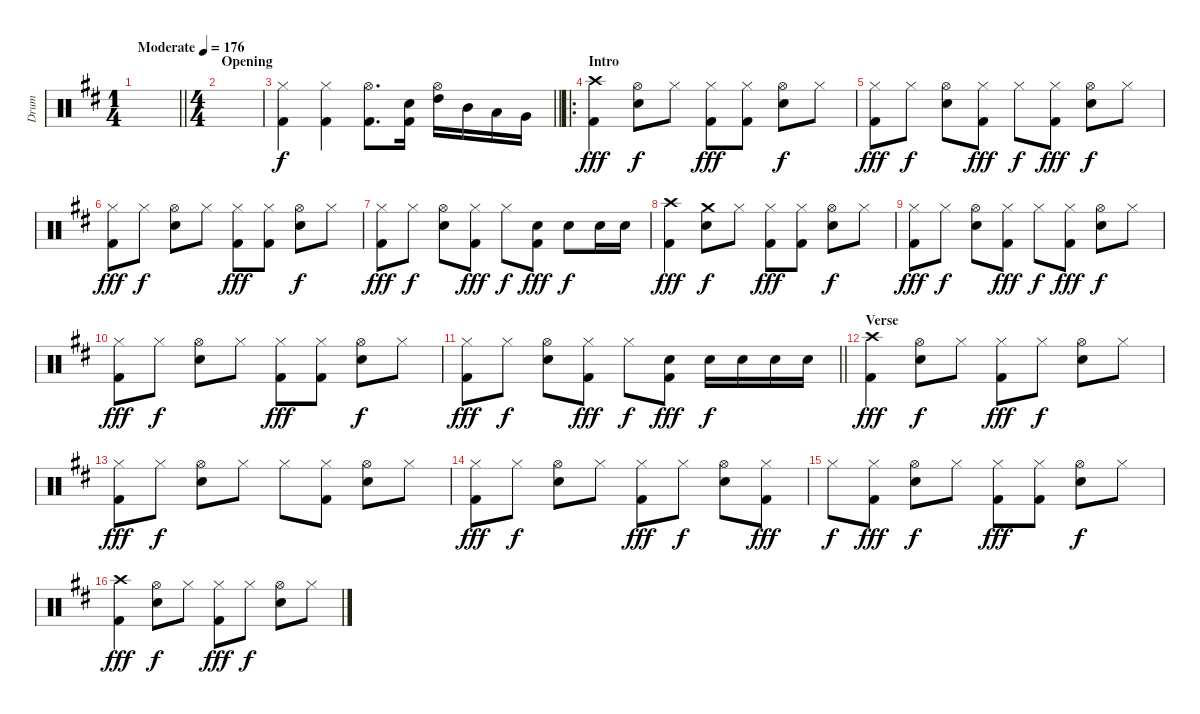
\track ("Drum" "Drum") {instrument percussion}
\staff {score}
\articulation defaults
\ts (1 4)
\tempo (176 "Moderate")
\clef neutral
\barLineRight lightlight
\ks d
|
\ts (4 4)
\section ("" "Opening")
|
\barLineRight lightlight
("Hi-Hat (closed)" "Kick (hit) 2").4 ("Hi-Hat (closed)" "Kick (hit) 2").4 ("Hi-Hat (open)" "Kick (hit) 2").8{d} ("Snare (hit) 2" "Kick (hit) 2").16 ("Hi-Hat (open)" "High Tom (hit)").16{dy f} "Mid Tom (hit)".16 "Low Tom (hit)".16 "Very Low Tom (hit)".16 |
\ro
\section ("" "Intro")
("Crash high (hit)" "Kick (hit) 2").4{dy fff} ("Hi-Hat (open)" "Snare (hit) 2").8{dy f} "Hi-Hat (closed)".8 ("Hi-Hat (closed)" "Kick (hit) 2").8{dy fff} ("Hi-Hat (closed)" "Kick (hit) 2").8 ("Hi-Hat (open)" "Snare (hit) 2").8{dy f} "Hi-Hat (closed)".8 |
("Hi-Hat (closed)" "Kick (hit) 2").8{dy fff} "Hi-Hat (closed)".8{dy f} ("Hi-Hat (open)" "Snare (hit) 2").8 ("Hi-Hat (closed)" "Kick (hit) 2").8{dy fff} "Hi-Hat (closed)".8{dy f} ("Hi-Hat (closed)" "Kick (hit) 2").8{dy fff} ("Hi-Hat (open)" "Snare (hit) 2").8{dy f} "Hi-Hat (closed)".8 |
("Hi-Hat (closed)" "Kick (hit) 2").8{dy fff} "Hi-Hat (closed)".8{dy f} ("Hi-Hat (open)" "Snare (hit) 2").8 "Hi-Hat (closed)".8 ("Hi-Hat (closed)" "Kick (hit) 2").8{dy fff} ("Hi-Hat (closed)" "Kick (hit) 2").8 ("Hi-Hat (open)" "Snare (hit) 2").8{dy f} "Hi-Hat (closed)".8 |
("Hi-Hat (closed)" "Kick (hit) 2").8{dy fff} "Hi-Hat (closed)".8{dy f} ("Hi-Hat (open)" "Snare (hit) 2").8 ("Hi-Hat (closed)" "Kick (hit) 2").8{dy fff} "Hi-Hat (closed)".8{dy f} ("Snare (hit) 2" "Kick (hit) 2").8{dy fff} "Snare (hit) 2".8{dy f} "Snare (hit) 2".16 "Snare (hit) 2".16 |
("Crash high (hit)" "Kick (hit) 2").4{dy fff} ("Crash medium (hit)" "Snare (hit) 2").8{dy f} "Hi-Hat (closed)".8 ("Hi-Hat (closed)" "Kick (hit) 2").8{dy fff} ("Hi-Hat (closed)" "Kick (hit) 2").8 ("Hi-Hat (open)" "Snare (hit) 2").8{dy f} "Hi-Hat (closed)".8 |
("Hi-Hat (closed)" "Kick (hit) 2").8{dy fff} "Hi-Hat (closed)".8{dy f} ("Hi-Hat (open)" "Snare (hit) 2").8 ("Hi-Hat (closed)" "Kick (hit) 2").8{dy fff} "Hi-Hat (closed)".8{dy f} ("Hi-Hat (closed)" "Kick (hit) 2").8{dy fff} ("Hi-Hat (open)" "Snare (hit) 2").8{dy f} "Hi-Hat (closed)".8 |
("Hi-Hat (closed)" "Kick (hit) 2").8{dy fff} "Hi-Hat (closed)".8{dy f} ("Hi-Hat (open)" "Snare (hit) 2").8 "Hi-Hat (closed)".8 ("Hi-Hat (closed)" "Kick (hit) 2").8{dy fff} ("Hi-Hat (closed)" "Kick (hit) 2").8 ("Hi-Hat (open)" "Snare (hit) 2").8{dy f} "Hi-Hat (closed)".8 |
\barLineRight lightlight
("Hi-Hat (closed)" "Kick (hit) 2").8{dy fff} "Hi-Hat (closed)".8{dy f} ("Hi-Hat (open)" "Snare (hit) 2").8 ("Hi-Hat (closed)" "Kick (hit) 2").8{dy fff} "Hi-Hat (closed)".8{dy f} ("Snare (hit) 2" "Kick (hit) 2").8{dy fff} "Snare (hit) 2".16{dy f} "Snare (hit) 2".16 "Snare (hit) 2".16 "Snare (hit) 2".16 |
\section ("" "Verse")
("Crash high (hit)" "Kick (hit) 2").4{dy fff} ("Hi-Hat (open)" "Snare (hit) 2").8{dy f} "Hi-Hat (closed)".8 ("Hi-Hat (closed)" "Kick (hit) 2").8{dy fff} "Hi-Hat (closed)".8{dy f} ("Hi-Hat (open)" "Snare (hit) 2").8 "Hi-Hat (closed)".8 |
("Hi-Hat (closed)" "Kick (hit) 2").8{dy fff} "Hi-Hat (closed)".8{dy f} ("Hi-Hat (open)" "Snare (hit) 2").8 "Hi-Hat (closed)".8 "Hi-Hat (closed)".8 ("Hi-Hat (closed)" "Kick (hit) 2").8 ("Hi-Hat (open)" "Snare (hit) 2").8 "Hi-Hat (closed)".8 |
("Hi-Hat (closed)" "Kick (hit) 2").8{dy fff} "Hi-Hat (closed)".8{dy f} ("Hi-Hat (open)" "Snare (hit) 2").8 "Hi-Hat (closed)".8 ("Hi-Hat (closed)" "Kick (hit) 2").8{dy fff} "Hi-Hat (closed)".8{dy f} ("Hi-Hat (open)" "Snare (hit) 2").8 ("Hi-Hat (closed)" "Kick (hit) 2").8{dy fff} |
"Hi-Hat (closed)".8{dy f} ("Hi-Hat (closed)" "Kick (hit) 2").8{dy fff} ("Hi-Hat (open)" "Snare (hit) 2").8{dy f} "Hi-Hat (closed)".8 ("Hi-Hat (closed)" "Kick (hit) 2").8{dy fff} ("Hi-Hat (closed)" "Kick (hit) 2").8 ("Hi-Hat (open)" "Snare (hit) 2").8{dy f} "Hi-Hat (closed)".8 |
("Crash high (hit)" "Kick (hit) 2").4{dy fff} ("Hi-Hat (open)" "Snare (hit) 2").8{dy f} "Hi-Hat (closed)".8 ("Hi-Hat (closed)" "Kick (hit) 2").8{dy fff} "Hi-Hat (closed)".8{dy f} ("Hi-Hat (open)" "Snare (hit) 2").8 "Hi-Hat (closed)".8
